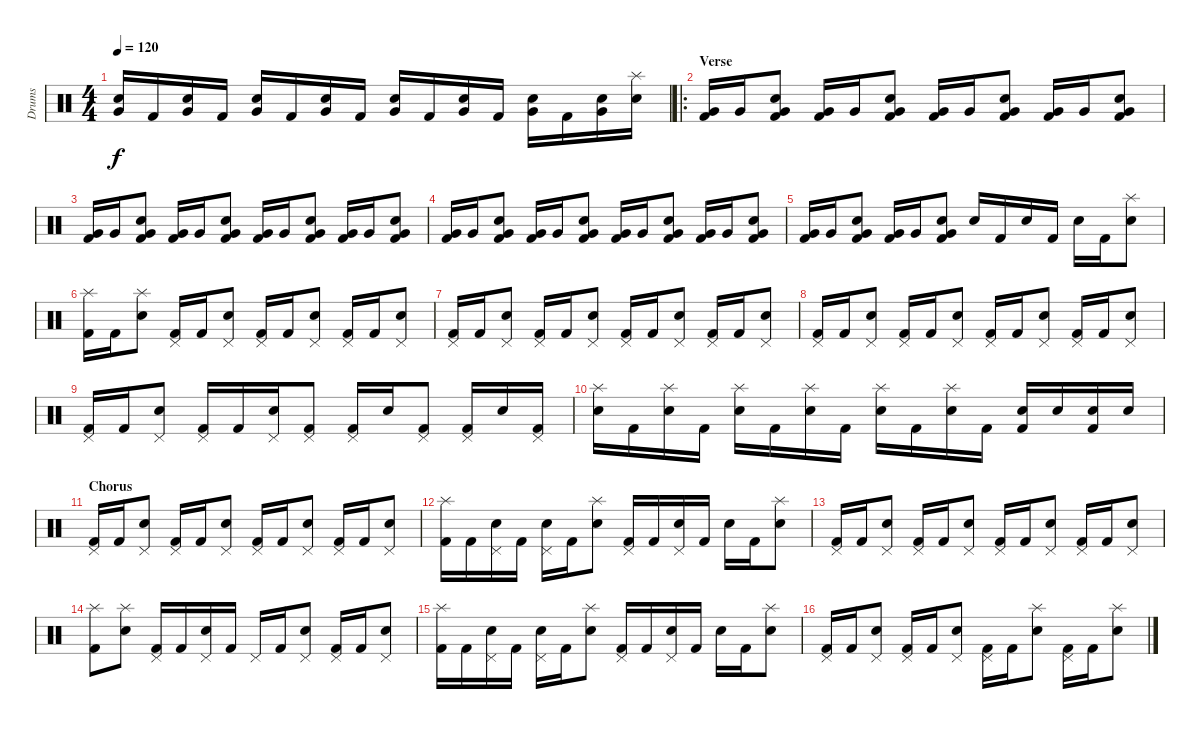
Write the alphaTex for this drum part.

\track ("Drums" "Drums") {instrument percussion}
\staff {score}
\articulation defaults
\ts (4 4)
\tempo 120
\clef neutral
\ks c
("Very Low Tom (hit)" "Electric Snare (hit)").16{dy f} "Kick (hit) 2".16 ("Very Low Tom (hit)" "Electric Snare (hit)").16 "Kick (hit) 2".16 ("Very Low Tom (hit)" "Electric Snare (hit)").16 "Kick (hit) 2".16 ("Very Low Tom (hit)" "Electric Snare (hit)").16 "Kick (hit) 2".16 ("Very Low Tom (hit)" "Electric Snare (hit)").16 "Kick (hit) 2".16 ("Very Low Tom (hit)" "Electric Snare (hit)").16 "Kick (hit) 2".16 ("Very Low Tom (hit)" "Electric Snare (hit)").16 "Kick (hit) 2".16 ("Very Low Tom (hit)" "Electric Snare (hit)").16 ("Splash (hit)" "Electric Snare (hit)").16 |
\ro
\section ("" "Verse")
("Very Low Tom (hit)" "Kick (hit) 2").16 "Very Low Tom (hit)".16 ("Very Low Tom (hit)" "Electric Snare (hit)" "Kick (hit) 2").8 ("Very Low Tom (hit)" "Kick (hit) 2").16 "Very Low Tom (hit)".16 ("Very Low Tom (hit)" "Electric Snare (hit)" "Kick (hit) 2").8 ("Very Low Tom (hit)" "Kick (hit) 2").16 "Very Low Tom (hit)".16 ("Very Low Tom (hit)" "Electric Snare (hit)" "Kick (hit) 2").8 ("Very Low Tom (hit)" "Kick (hit) 2").16 "Very Low Tom (hit)".16 ("Very Low Tom (hit)" "Electric Snare (hit)" "Kick (hit) 2").8 |
("Very Low Tom (hit)" "Kick (hit) 2").16 "Very Low Tom (hit)".16 ("Very Low Tom (hit)" "Electric Snare (hit)" "Kick (hit) 2").8 ("Very Low Tom (hit)" "Kick (hit) 2").16 "Very Low Tom (hit)".16 ("Very Low Tom (hit)" "Electric Snare (hit)" "Kick (hit) 2").8 ("Very Low Tom (hit)" "Kick (hit) 2").16 "Very Low Tom (hit)".16 ("Very Low Tom (hit)" "Electric Snare (hit)" "Kick (hit) 2").8 ("Very Low Tom (hit)" "Kick (hit) 2").16 "Very Low Tom (hit)".16 ("Very Low Tom (hit)" "Electric Snare (hit)" "Kick (hit) 2").8 |
("Very Low Tom (hit)" "Kick (hit) 2").16 "Very Low Tom (hit)".16 ("Very Low Tom (hit)" "Electric Snare (hit)" "Kick (hit) 2").8 ("Very Low Tom (hit)" "Kick (hit) 2").16 "Very Low Tom (hit)".16 ("Very Low Tom (hit)" "Electric Snare (hit)" "Kick (hit) 2").8 ("Very Low Tom (hit)" "Kick (hit) 2").16 "Very Low Tom (hit)".16 ("Very Low Tom (hit)" "Electric Snare (hit)" "Kick (hit) 2").8 ("Very Low Tom (hit)" "Kick (hit) 2").16 "Very Low Tom (hit)".16 ("Very Low Tom (hit)" "Electric Snare (hit)" "Kick (hit) 2").8 |
("Very Low Tom (hit)" "Kick (hit) 2").16 "Very Low Tom (hit)".16 ("Very Low Tom (hit)" "Electric Snare (hit)" "Kick (hit) 2").8 ("Very Low Tom (hit)" "Kick (hit) 2").16 "Very Low Tom (hit)".16 ("Very Low Tom (hit)" "Electric Snare (hit)" "Kick (hit) 2").8 "Electric Snare (hit)".16 "Kick (hit) 2".16 "Electric Snare (hit)".16 "Kick (hit) 2".16 "Electric Snare (hit)".16 "Kick (hit) 2".16 ("Splash (hit)" "Electric Snare (hit)").8 |
("Splash (hit)" "Kick (hit) 2").16 "Kick (hit) 2".16 ("Splash (hit)" "Electric Snare (hit)").8 ("Pedal Hi-Hat (hit)" "Kick (hit) 2").16 "Kick (hit) 2".16 ("Pedal Hi-Hat (hit)" "Electric Snare (hit)").8 ("Pedal Hi-Hat (hit)" "Kick (hit) 2").16 "Kick (hit) 2".16 ("Pedal Hi-Hat (hit)" "Electric Snare (hit)").8 ("Pedal Hi-Hat (hit)" "Kick (hit) 2").16 "Kick (hit) 2".16 ("Pedal Hi-Hat (hit)" "Electric Snare (hit)").8 |
("Pedal Hi-Hat (hit)" "Kick (hit) 2").16 "Kick (hit) 2".16 ("Pedal Hi-Hat (hit)" "Electric Snare (hit)").8 ("Pedal Hi-Hat (hit)" "Kick (hit) 2").16 "Kick (hit) 2".16 ("Pedal Hi-Hat (hit)" "Electric Snare (hit)").8 ("Pedal Hi-Hat (hit)" "Kick (hit) 2").16 "Kick (hit) 2".16 ("Pedal Hi-Hat (hit)" "Electric Snare (hit)").8 ("Pedal Hi-Hat (hit)" "Kick (hit) 2").16 "Kick (hit) 2".16 ("Pedal Hi-Hat (hit)" "Electric Snare (hit)").8 |
("Pedal Hi-Hat (hit)" "Kick (hit) 2").16 "Kick (hit) 2".16 ("Pedal Hi-Hat (hit)" "Electric Snare (hit)").8 ("Pedal Hi-Hat (hit)" "Kick (hit) 2").16 "Kick (hit) 2".16 ("Pedal Hi-Hat (hit)" "Electric Snare (hit)").8 ("Pedal Hi-Hat (hit)" "Kick (hit) 2").16 "Kick (hit) 2".16 ("Pedal Hi-Hat (hit)" "Electric Snare (hit)").8 ("Pedal Hi-Hat (hit)" "Kick (hit) 2").16 "Kick (hit) 2".16 ("Pedal Hi-Hat (hit)" "Electric Snare (hit)").8 |
("Pedal Hi-Hat (hit)" "Kick (hit) 2").16 "Kick (hit) 2".16 ("Pedal Hi-Hat (hit)" "Electric Snare (hit)").8 ("Pedal Hi-Hat (hit)" "Kick (hit) 2").16 "Kick (hit) 2".16 ("Pedal Hi-Hat (hit)" "Electric Snare (hit)").16 ("Pedal Hi-Hat (hit)" "Kick (hit) 2").8 ("Pedal Hi-Hat (hit)" "Kick (hit) 2").16 "Electric Snare (hit)".16 ("Pedal Hi-Hat (hit)" "Kick (hit) 2").8 ("Pedal Hi-Hat (hit)" "Kick (hit) 2").16 "Electric Snare (hit)".16 ("Pedal Hi-Hat (hit)" "Kick (hit) 2").16 |
("Splash (hit)" "Electric Snare (hit)").16 "Kick (hit) 2".16 ("Splash (hit)" "Electric Snare (hit)").16 "Kick (hit) 2".16 ("Splash (hit)" "Electric Snare (hit)").16 "Kick (hit) 2".16 ("Splash (hit)" "Electric Snare (hit)").16 "Kick (hit) 2".16 ("Splash (hit)" "Electric Snare (hit)").16 "Kick (hit) 2".16 ("Splash (hit)" "Electric Snare (hit)").16 "Kick (hit) 2".16 ("Electric Snare (hit)" "Kick (hit) 2").16 "Electric Snare (hit)".16 ("Electric Snare (hit)" "Kick (hit) 2").16 "Electric Snare (hit)".16 |
\section ("" "Chorus")
("Pedal Hi-Hat (hit)" "Kick (hit) 2").16 "Kick (hit) 2".16 ("Pedal Hi-Hat (hit)" "Electric Snare (hit)").8 ("Pedal Hi-Hat (hit)" "Kick (hit) 2").16 "Kick (hit) 2".16 ("Pedal Hi-Hat (hit)" "Electric Snare (hit)").8 ("Pedal Hi-Hat (hit)" "Kick (hit) 2").16 "Kick (hit) 2".16 ("Pedal Hi-Hat (hit)" "Electric Snare (hit)").8 ("Pedal Hi-Hat (hit)" "Kick (hit) 2").16 "Kick (hit) 2".16 ("Pedal Hi-Hat (hit)" "Electric Snare (hit)").8 |
("Splash (hit)" "Kick (hit) 2").16 "Kick (hit) 2".16 ("Pedal Hi-Hat (hit)" "Electric Snare (hit)").16 "Kick (hit) 2".16 ("Pedal Hi-Hat (hit)" "Electric Snare (hit)").16 "Kick (hit) 2".16 ("Splash (hit)" "Electric Snare (hit)").8 ("Pedal Hi-Hat (hit)" "Kick (hit) 2").16 "Kick (hit) 2".16 ("Pedal Hi-Hat (hit)" "Electric Snare (hit)").16 "Kick (hit) 2".16 "Electric Snare (hit)".16 "Kick (hit) 2".16 ("Splash (hit)" "Electric Snare (hit)").8 |
("Pedal Hi-Hat (hit)" "Kick (hit) 2").16 "Kick (hit) 2".16 ("Pedal Hi-Hat (hit)" "Electric Snare (hit)").8 ("Pedal Hi-Hat (hit)" "Kick (hit) 2").16 "Kick (hit) 2".16 ("Pedal Hi-Hat (hit)" "Electric Snare (hit)").8 ("Pedal Hi-Hat (hit)" "Kick (hit) 2").16 "Kick (hit) 2".16 ("Pedal Hi-Hat (hit)" "Electric Snare (hit)").8 ("Pedal Hi-Hat (hit)" "Kick (hit) 2").16 "Kick (hit) 2".16 ("Pedal Hi-Hat (hit)" "Electric Snare (hit)").8 |
("Splash (hit)" "Kick (hit) 2").8 ("Splash (hit)" "Electric Snare (hit)").8 ("Pedal Hi-Hat (hit)" "Kick (hit) 2").16 "Kick (hit) 2".16 ("Pedal Hi-Hat (hit)" "Electric Snare (hit)").16 "Kick (hit) 2".16 "Pedal Hi-Hat (hit)".16 "Kick (hit) 2".16 ("Pedal Hi-Hat (hit)" "Electric Snare (hit)").8 ("Pedal Hi-Hat (hit)" "Kick (hit) 2").16 "Kick (hit) 2".16 ("Pedal Hi-Hat (hit)" "Electric Snare (hit)").8 |
("Splash (hit)" "Kick (hit) 2").16 "Kick (hit) 2".16 ("Pedal Hi-Hat (hit)" "Electric Snare (hit)").16 "Kick (hit) 2".16 ("Pedal Hi-Hat (hit)" "Electric Snare (hit)").16 "Kick (hit) 2".16 ("Splash (hit)" "Electric Snare (hit)").8 ("Pedal Hi-Hat (hit)" "Kick (hit) 2").16 "Kick (hit) 2".16 ("Pedal Hi-Hat (hit)" "Electric Snare (hit)").16 "Kick (hit) 2".16 "Electric Snare (hit)".16 "Kick (hit) 2".16 ("Splash (hit)" "Electric Snare (hit)").8 |
("Pedal Hi-Hat (hit)" "Kick (hit) 2").16 "Kick (hit) 2".16 ("Pedal Hi-Hat (hit)" "Electric Snare (hit)").8 ("Pedal Hi-Hat (hit)" "Kick (hit) 2").16 "Kick (hit) 2".16 ("Pedal Hi-Hat (hit)" "Electric Snare (hit)").8 ("Pedal Hi-Hat (hit)" "Kick (hit) 2").16 "Kick (hit) 2".16 ("Splash (hit)" "Electric Snare (hit)").8 ("Pedal Hi-Hat (hit)" "Kick (hit) 2").16 "Kick (hit) 2".16 ("Splash (hit)" "Electric Snare (hit)").8
